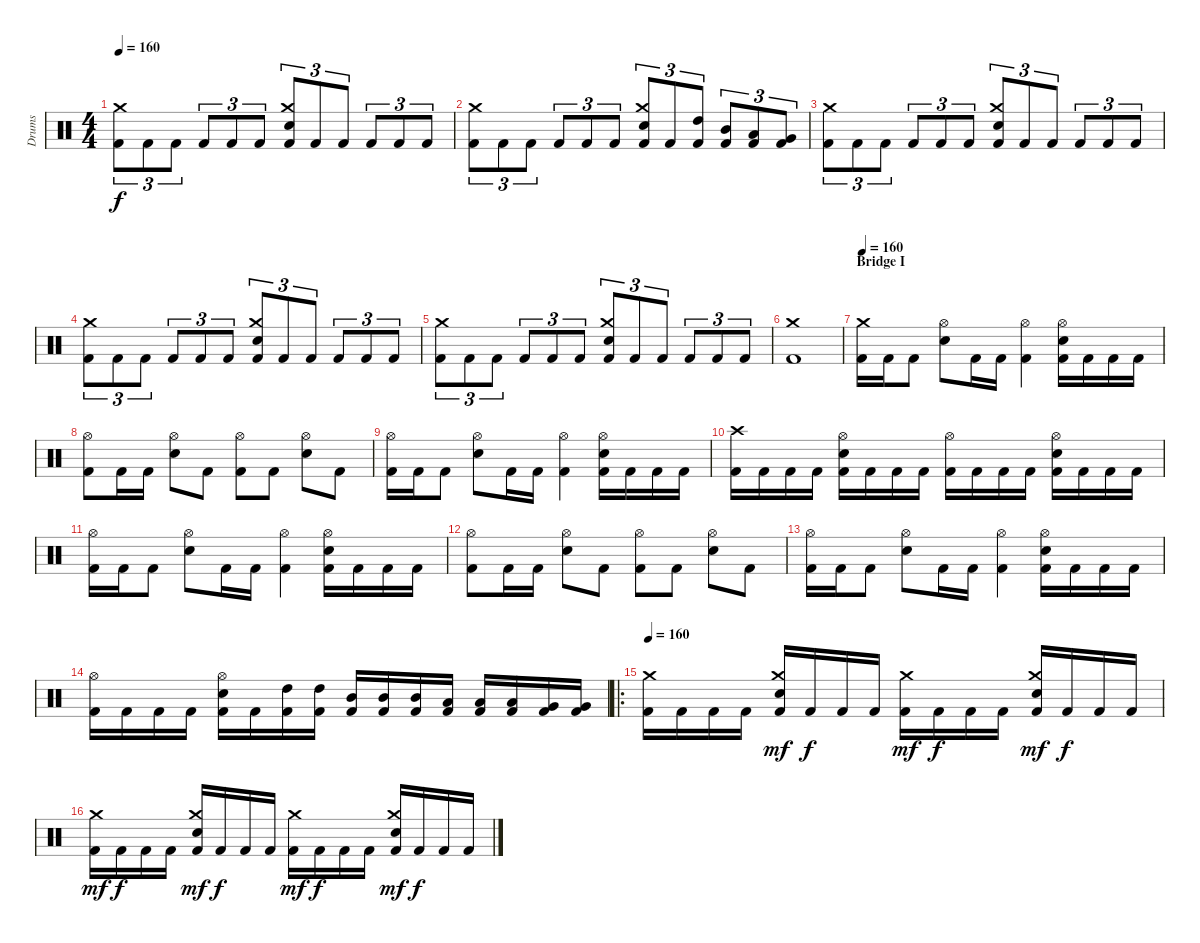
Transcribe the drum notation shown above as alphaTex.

\track ("Drums" "Drums") {instrument percussion}
\staff {score}
\articulation defaults
\ts (4 4)
\tempo 160
\clef neutral
\ks c
("Kick (hit) 2" "Crash medium (hit)").8{tu (3 2) dy f} "Kick (hit) 2".8{tu (3 2)} "Kick (hit) 2".8{tu (3 2)} "Kick (hit) 2".8{tu (3 2)} "Kick (hit) 2".8{tu (3 2)} "Kick (hit) 2".8{tu (3 2)} ("Kick (hit) 2" "Electric Snare (hit)" "Crash medium (hit)").8{tu (3 2)} "Kick (hit) 2".8{tu (3 2)} "Kick (hit) 2".8{tu (3 2)} "Kick (hit) 2".8{tu (3 2)} "Kick (hit) 2".8{tu (3 2)} "Kick (hit) 2".8{tu (3 2)} |
("Kick (hit) 2" "Crash medium (hit)").8{tu (3 2)} "Kick (hit) 2".8{tu (3 2)} "Kick (hit) 2".8{tu (3 2)} "Kick (hit) 2".8{tu (3 2)} "Kick (hit) 2".8{tu (3 2)} "Kick (hit) 2".8{tu (3 2)} ("Kick (hit) 2" "Electric Snare (hit)" "Crash medium (hit)").8{tu (3 2)} "Kick (hit) 2".8{tu (3 2)} ("Kick (hit) 2" "High Tom (hit)").8{tu (3 2)} ("Kick (hit) 2" "Mid Tom (hit)").8{tu (3 2)} ("Kick (hit) 2" "Low Tom (hit)").8{tu (3 2)} ("Kick (hit) 2" "Very Low Tom (hit)").8{tu (3 2)} |
("Kick (hit) 2" "Crash medium (hit)").8{tu (3 2)} "Kick (hit) 2".8{tu (3 2)} "Kick (hit) 2".8{tu (3 2)} "Kick (hit) 2".8{tu (3 2)} "Kick (hit) 2".8{tu (3 2)} "Kick (hit) 2".8{tu (3 2)} ("Kick (hit) 2" "Electric Snare (hit)" "Crash medium (hit)").8{tu (3 2)} "Kick (hit) 2".8{tu (3 2)} "Kick (hit) 2".8{tu (3 2)} "Kick (hit) 2".8{tu (3 2)} "Kick (hit) 2".8{tu (3 2)} "Kick (hit) 2".8{tu (3 2)} |
("Kick (hit) 2" "Crash medium (hit)").8{tu (3 2)} "Kick (hit) 2".8{tu (3 2)} "Kick (hit) 2".8{tu (3 2)} "Kick (hit) 2".8{tu (3 2)} "Kick (hit) 2".8{tu (3 2)} "Kick (hit) 2".8{tu (3 2)} ("Kick (hit) 2" "Electric Snare (hit)" "Crash medium (hit)").8{tu (3 2)} "Kick (hit) 2".8{tu (3 2)} "Kick (hit) 2".8{tu (3 2)} "Kick (hit) 2".8{tu (3 2)} "Kick (hit) 2".8{tu (3 2)} "Kick (hit) 2".8{tu (3 2)} |
("Kick (hit) 2" "Crash medium (hit)").8{tu (3 2)} "Kick (hit) 2".8{tu (3 2)} "Kick (hit) 2".8{tu (3 2)} "Kick (hit) 2".8{tu (3 2)} "Kick (hit) 2".8{tu (3 2)} "Kick (hit) 2".8{tu (3 2)} ("Kick (hit) 2" "Electric Snare (hit)" "Crash medium (hit)").8{tu (3 2)} "Kick (hit) 2".8{tu (3 2)} "Kick (hit) 2".8{tu (3 2)} "Kick (hit) 2".8{tu (3 2)} "Kick (hit) 2".8{tu (3 2)} "Kick (hit) 2".8{tu (3 2)} |
("Kick (hit) 2" "Crash medium (hit)").1 |
\section ("" "Bridge I")
\tempo 160
("Kick (hit) 2" "Crash medium (hit)").16 "Kick (hit) 2".16 "Kick (hit) 2".8 ("Electric Snare (hit)" "Hi-Hat (open)").8 "Kick (hit) 2".16 "Kick (hit) 2".16 ("Kick (hit) 2" "Hi-Hat (open)").4 ("Kick (hit) 2" "Electric Snare (hit)" "Hi-Hat (open)").16 "Kick (hit) 2".16 "Kick (hit) 2".16 "Kick (hit) 2".16 |
("Kick (hit) 2" "Hi-Hat (open)").8 "Kick (hit) 2".16 "Kick (hit) 2".16 ("Electric Snare (hit)" "Hi-Hat (open)").8 "Kick (hit) 2".8 ("Kick (hit) 2" "Hi-Hat (open)").8 "Kick (hit) 2".8 ("Electric Snare (hit)" "Hi-Hat (open)").8 "Kick (hit) 2".8 |
("Kick (hit) 2" "Hi-Hat (open)").16 "Kick (hit) 2".16 "Kick (hit) 2".8 ("Electric Snare (hit)" "Hi-Hat (open)").8 "Kick (hit) 2".16 "Kick (hit) 2".16 ("Kick (hit) 2" "Hi-Hat (open)").4 ("Kick (hit) 2" "Electric Snare (hit)" "Hi-Hat (open)").16 "Kick (hit) 2".16 "Kick (hit) 2".16 "Kick (hit) 2".16 |
("Kick (hit) 2" "Crash high (hit)").16 "Kick (hit) 2".16 "Kick (hit) 2".16 "Kick (hit) 2".16 ("Kick (hit) 2" "Electric Snare (hit)" "Hi-Hat (open)").16 "Kick (hit) 2".16 "Kick (hit) 2".16 "Kick (hit) 2".16 ("Kick (hit) 2" "Hi-Hat (open)").16 "Kick (hit) 2".16 "Kick (hit) 2".16 "Kick (hit) 2".16 ("Kick (hit) 2" "Electric Snare (hit)" "Hi-Hat (open)").16 "Kick (hit) 2".16 "Kick (hit) 2".16 "Kick (hit) 2".16 |
("Kick (hit) 2" "Hi-Hat (open)").16 "Kick (hit) 2".16 "Kick (hit) 2".8 ("Electric Snare (hit)" "Hi-Hat (open)").8 "Kick (hit) 2".16 "Kick (hit) 2".16 ("Kick (hit) 2" "Hi-Hat (open)").4 ("Kick (hit) 2" "Electric Snare (hit)" "Hi-Hat (open)").16 "Kick (hit) 2".16 "Kick (hit) 2".16 "Kick (hit) 2".16 |
("Kick (hit) 2" "Hi-Hat (open)").8 "Kick (hit) 2".16 "Kick (hit) 2".16 ("Electric Snare (hit)" "Hi-Hat (open)").8 "Kick (hit) 2".8 ("Kick (hit) 2" "Hi-Hat (open)").8 "Kick (hit) 2".8 ("Electric Snare (hit)" "Hi-Hat (open)").8 "Kick (hit) 2".8 |
("Kick (hit) 2" "Hi-Hat (open)").16 "Kick (hit) 2".16 "Kick (hit) 2".8 ("Electric Snare (hit)" "Hi-Hat (open)").8 "Kick (hit) 2".16 "Kick (hit) 2".16 ("Kick (hit) 2" "Hi-Hat (open)").4 ("Kick (hit) 2" "Electric Snare (hit)" "Hi-Hat (open)").16 "Kick (hit) 2".16 "Kick (hit) 2".16 "Kick (hit) 2".16 |
("Kick (hit) 2" "Hi-Hat (open)").16 "Kick (hit) 2".16 "Kick (hit) 2".16 "Kick (hit) 2".16 ("Kick (hit) 2" "Electric Snare (hit)" "Hi-Hat (open)").16 "Kick (hit) 2".16 ("Kick (hit) 2" "High Tom (hit)").16 ("Kick (hit) 2" "High Tom (hit)").16 ("Kick (hit) 2" "Mid Tom (hit)").16 ("Kick (hit) 2" "Mid Tom (hit)").16 ("Kick (hit) 2" "Mid Tom (hit)").16 ("Kick (hit) 2" "Low Tom (hit)").16 ("Kick (hit) 2" "Low Tom (hit)").16 ("Kick (hit) 2" "Low Tom (hit)").16 ("Kick (hit) 2" "Very Low Tom (hit)").16 ("Kick (hit) 2" "Very Low Tom (hit)").16 |
\ro
\tempo 160
("Kick (hit) 2" "Crash medium (hit)").16 "Kick (hit) 2".16 "Kick (hit) 2".16 "Kick (hit) 2".16 ("Kick (hit) 2" "Electric Snare (hit)" "Crash medium (hit)").16{dy mf} "Kick (hit) 2".16{dy f} "Kick (hit) 2".16 "Kick (hit) 2".16 ("Kick (hit) 2" "Crash medium (hit)").16{dy mf} "Kick (hit) 2".16{dy f} "Kick (hit) 2".16 "Kick (hit) 2".16 ("Kick (hit) 2" "Electric Snare (hit)" "Crash medium (hit)").16{dy mf} "Kick (hit) 2".16{dy f} "Kick (hit) 2".16 "Kick (hit) 2".16 |
("Kick (hit) 2" "Crash medium (hit)").16{dy mf} "Kick (hit) 2".16{dy f} "Kick (hit) 2".16 "Kick (hit) 2".16 ("Kick (hit) 2" "Electric Snare (hit)" "Crash medium (hit)").16{dy mf} "Kick (hit) 2".16{dy f} "Kick (hit) 2".16 "Kick (hit) 2".16 ("Kick (hit) 2" "Crash medium (hit)").16{dy mf} "Kick (hit) 2".16{dy f} "Kick (hit) 2".16 "Kick (hit) 2".16 ("Kick (hit) 2" "Electric Snare (hit)" "Crash medium (hit)").16{dy mf} "Kick (hit) 2".16{dy f} "Kick (hit) 2".16 "Kick (hit) 2".16
